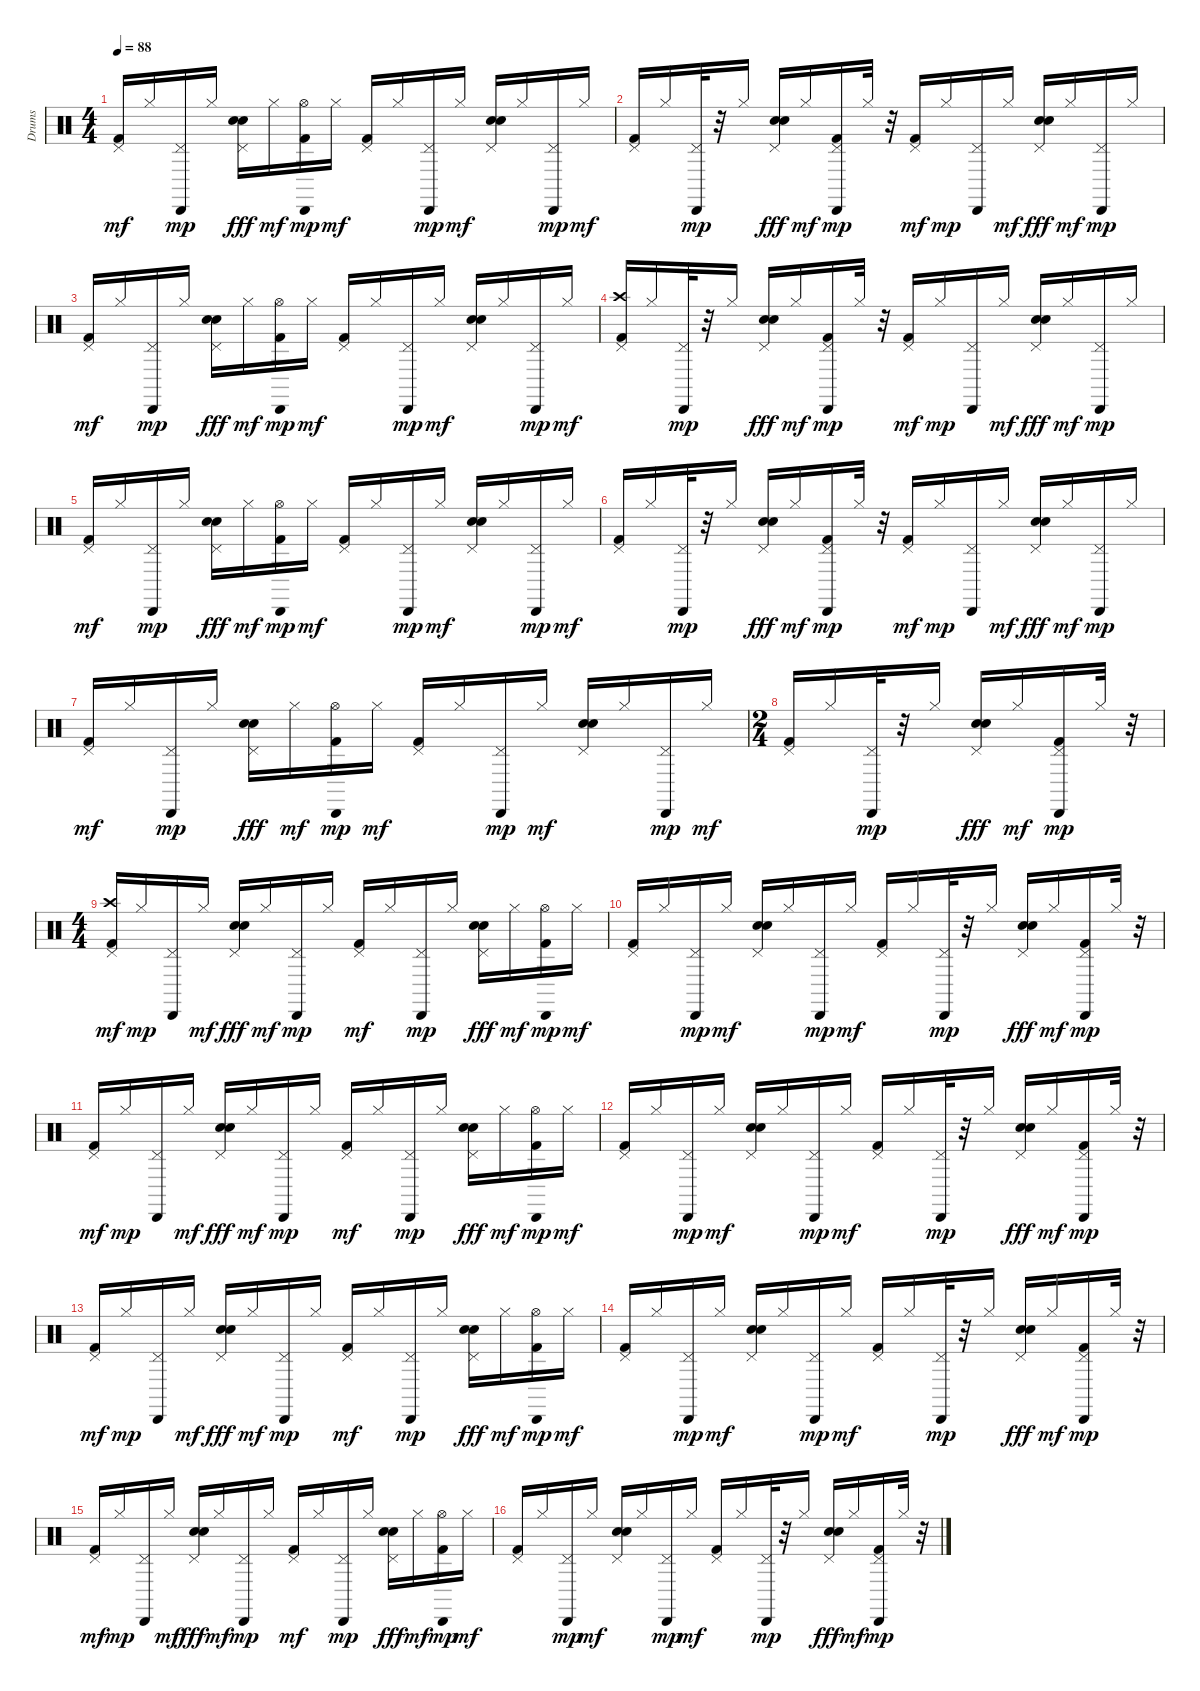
\track ("Drums" "Drums") {instrument percussion}
\staff {score}
\articulation defaults
\ts (4 4)
\tempo 88
\clef neutral
\ks c
("Pedal Hi-Hat (hit)" "Kick (hit) 2").16{dy mf} "Hi-Hat (closed)".16 ("Pedal Hi-Hat (hit)" "Cabasa (hit)").16{dy mp} "Hi-Hat (closed)".16 ("Pedal Hi-Hat (hit)" "Snare (hit) 2" "Electric Snare (hit)").16{dy fff} "Hi-Hat (closed)".16{dy mf} ("Hi-Hat (open)" "Cabasa (hit)" "Kick (hit) 2").16{dy mp} "Hi-Hat (closed)".16{dy mf} ("Kick (hit) 2" "Pedal Hi-Hat (hit)").16 "Hi-Hat (closed)".16 ("Pedal Hi-Hat (hit)" "Cabasa (hit)").16{dy mp} "Hi-Hat (closed)".16{dy mf} ("Snare (hit) 2" "Electric Snare (hit)" "Pedal Hi-Hat (hit)").16 "Hi-Hat (closed)".16 ("Pedal Hi-Hat (hit)" "Cabasa (hit)").16{dy mp} "Hi-Hat (closed)".16{dy mf} |
("Pedal Hi-Hat (hit)" "Kick (hit) 2").16 "Hi-Hat (closed)".16 ("Pedal Hi-Hat (hit)" "Cabasa (hit)").32{dy mp} r.32 "Hi-Hat (closed)".16 ("Pedal Hi-Hat (hit)" "Snare (hit) 2" "Electric Snare (hit)").16{dy fff} "Hi-Hat (closed)".16{dy mf} ("Pedal Hi-Hat (hit)" "Cabasa (hit)" "Kick (hit) 2").16{dy mp} "Hi-Hat (closed)".32 r.32 ("Pedal Hi-Hat (hit)" "Kick (hit) 2").16{dy mf} "Hi-Hat (closed)".16{dy mp} ("Pedal Hi-Hat (hit)" "Cabasa (hit)").16 "Hi-Hat (closed)".16{dy mf} ("Pedal Hi-Hat (hit)" "Snare (hit) 2" "Electric Snare (hit)").16{dy fff} "Hi-Hat (closed)".16{dy mf} ("Pedal Hi-Hat (hit)" "Cabasa (hit)").16{dy mp} "Hi-Hat (closed)".16 |
("Pedal Hi-Hat (hit)" "Kick (hit) 2").16{dy mf} "Hi-Hat (closed)".16 ("Pedal Hi-Hat (hit)" "Cabasa (hit)").16{dy mp} "Hi-Hat (closed)".16 ("Pedal Hi-Hat (hit)" "Snare (hit) 2" "Electric Snare (hit)").16{dy fff} "Hi-Hat (closed)".16{dy mf} ("Hi-Hat (open)" "Cabasa (hit)" "Kick (hit) 2").16{dy mp} "Hi-Hat (closed)".16{dy mf} ("Kick (hit) 2" "Pedal Hi-Hat (hit)").16 "Hi-Hat (closed)".16 ("Pedal Hi-Hat (hit)" "Cabasa (hit)").16{dy mp} "Hi-Hat (closed)".16{dy mf} ("Snare (hit) 2" "Electric Snare (hit)" "Pedal Hi-Hat (hit)").16 "Hi-Hat (closed)".16 ("Pedal Hi-Hat (hit)" "Cabasa (hit)").16{dy mp} "Hi-Hat (closed)".16{dy mf} |
("Crash high (hit)" "Pedal Hi-Hat (hit)" "Kick (hit) 2").16 "Hi-Hat (closed)".16 ("Pedal Hi-Hat (hit)" "Cabasa (hit)").32{dy mp} r.32 "Hi-Hat (closed)".16 ("Pedal Hi-Hat (hit)" "Snare (hit) 2" "Electric Snare (hit)").16{dy fff} "Hi-Hat (closed)".16{dy mf} ("Pedal Hi-Hat (hit)" "Cabasa (hit)" "Kick (hit) 2").16{dy mp} "Hi-Hat (closed)".32 r.32 ("Pedal Hi-Hat (hit)" "Kick (hit) 2").16{dy mf} "Hi-Hat (closed)".16{dy mp} ("Pedal Hi-Hat (hit)" "Cabasa (hit)").16 "Hi-Hat (closed)".16{dy mf} ("Pedal Hi-Hat (hit)" "Snare (hit) 2" "Electric Snare (hit)").16{dy fff} "Hi-Hat (closed)".16{dy mf} ("Pedal Hi-Hat (hit)" "Cabasa (hit)").16{dy mp} "Hi-Hat (closed)".16 |
("Pedal Hi-Hat (hit)" "Kick (hit) 2").16{dy mf} "Hi-Hat (closed)".16 ("Pedal Hi-Hat (hit)" "Cabasa (hit)").16{dy mp} "Hi-Hat (closed)".16 ("Pedal Hi-Hat (hit)" "Snare (hit) 2" "Electric Snare (hit)").16{dy fff} "Hi-Hat (closed)".16{dy mf} ("Hi-Hat (open)" "Cabasa (hit)" "Kick (hit) 2").16{dy mp} "Hi-Hat (closed)".16{dy mf} ("Kick (hit) 2" "Pedal Hi-Hat (hit)").16 "Hi-Hat (closed)".16 ("Pedal Hi-Hat (hit)" "Cabasa (hit)").16{dy mp} "Hi-Hat (closed)".16{dy mf} ("Snare (hit) 2" "Electric Snare (hit)" "Pedal Hi-Hat (hit)").16 "Hi-Hat (closed)".16 ("Pedal Hi-Hat (hit)" "Cabasa (hit)").16{dy mp} "Hi-Hat (closed)".16{dy mf} |
("Pedal Hi-Hat (hit)" "Kick (hit) 2").16 "Hi-Hat (closed)".16 ("Pedal Hi-Hat (hit)" "Cabasa (hit)").32{dy mp} r.32 "Hi-Hat (closed)".16 ("Pedal Hi-Hat (hit)" "Snare (hit) 2" "Electric Snare (hit)").16{dy fff} "Hi-Hat (closed)".16{dy mf} ("Pedal Hi-Hat (hit)" "Cabasa (hit)" "Kick (hit) 2").16{dy mp} "Hi-Hat (closed)".32 r.32 ("Pedal Hi-Hat (hit)" "Kick (hit) 2").16{dy mf} "Hi-Hat (closed)".16{dy mp} ("Pedal Hi-Hat (hit)" "Cabasa (hit)").16 "Hi-Hat (closed)".16{dy mf} ("Pedal Hi-Hat (hit)" "Snare (hit) 2" "Electric Snare (hit)").16{dy fff} "Hi-Hat (closed)".16{dy mf} ("Pedal Hi-Hat (hit)" "Cabasa (hit)").16{dy mp} "Hi-Hat (closed)".16 |
("Pedal Hi-Hat (hit)" "Kick (hit) 2").16{dy mf} "Hi-Hat (closed)".16 ("Pedal Hi-Hat (hit)" "Cabasa (hit)").16{dy mp} "Hi-Hat (closed)".16 ("Pedal Hi-Hat (hit)" "Snare (hit) 2" "Electric Snare (hit)").16{dy fff} "Hi-Hat (closed)".16{dy mf} ("Hi-Hat (open)" "Cabasa (hit)" "Kick (hit) 2").16{dy mp} "Hi-Hat (closed)".16{dy mf} ("Kick (hit) 2" "Pedal Hi-Hat (hit)").16 "Hi-Hat (closed)".16 ("Pedal Hi-Hat (hit)" "Cabasa (hit)").16{dy mp} "Hi-Hat (closed)".16{dy mf} ("Snare (hit) 2" "Electric Snare (hit)" "Pedal Hi-Hat (hit)").16 "Hi-Hat (closed)".16 ("Pedal Hi-Hat (hit)" "Cabasa (hit)").16{dy mp} "Hi-Hat (closed)".16{dy mf} |
\ts (2 4)
("Pedal Hi-Hat (hit)" "Kick (hit) 2").16 "Hi-Hat (closed)".16 ("Pedal Hi-Hat (hit)" "Cabasa (hit)").32{dy mp} r.32 "Hi-Hat (closed)".16 ("Pedal Hi-Hat (hit)" "Snare (hit) 2" "Electric Snare (hit)").16{dy fff} "Hi-Hat (closed)".16{dy mf} ("Pedal Hi-Hat (hit)" "Cabasa (hit)" "Kick (hit) 2").16{dy mp} "Hi-Hat (closed)".32 r.32 |
\ts (4 4)
("Crash high (hit)" "Pedal Hi-Hat (hit)" "Kick (hit) 2").16{dy mf} "Hi-Hat (closed)".16{dy mp} ("Pedal Hi-Hat (hit)" "Cabasa (hit)").16 "Hi-Hat (closed)".16{dy mf} ("Pedal Hi-Hat (hit)" "Snare (hit) 2" "Electric Snare (hit)").16{dy fff} "Hi-Hat (closed)".16{dy mf} ("Pedal Hi-Hat (hit)" "Cabasa (hit)").16{dy mp} "Hi-Hat (closed)".16 ("Pedal Hi-Hat (hit)" "Kick (hit) 2").16{dy mf} "Hi-Hat (closed)".16 ("Pedal Hi-Hat (hit)" "Cabasa (hit)").16{dy mp} "Hi-Hat (closed)".16 ("Pedal Hi-Hat (hit)" "Snare (hit) 2" "Electric Snare (hit)").16{dy fff} "Hi-Hat (closed)".16{dy mf} ("Hi-Hat (open)" "Cabasa (hit)" "Kick (hit) 2").16{dy mp} "Hi-Hat (closed)".16{dy mf} |
("Kick (hit) 2" "Pedal Hi-Hat (hit)").16 "Hi-Hat (closed)".16 ("Pedal Hi-Hat (hit)" "Cabasa (hit)").16{dy mp} "Hi-Hat (closed)".16{dy mf} ("Snare (hit) 2" "Electric Snare (hit)" "Pedal Hi-Hat (hit)").16 "Hi-Hat (closed)".16 ("Pedal Hi-Hat (hit)" "Cabasa (hit)").16{dy mp} "Hi-Hat (closed)".16{dy mf} ("Pedal Hi-Hat (hit)" "Kick (hit) 2").16 "Hi-Hat (closed)".16 ("Pedal Hi-Hat (hit)" "Cabasa (hit)").32{dy mp} r.32 "Hi-Hat (closed)".16 ("Pedal Hi-Hat (hit)" "Snare (hit) 2" "Electric Snare (hit)").16{dy fff} "Hi-Hat (closed)".16{dy mf} ("Pedal Hi-Hat (hit)" "Cabasa (hit)" "Kick (hit) 2").16{dy mp} "Hi-Hat (closed)".32 r.32 |
("Pedal Hi-Hat (hit)" "Kick (hit) 2").16{dy mf} "Hi-Hat (closed)".16{dy mp} ("Pedal Hi-Hat (hit)" "Cabasa (hit)").16 "Hi-Hat (closed)".16{dy mf} ("Pedal Hi-Hat (hit)" "Snare (hit) 2" "Electric Snare (hit)").16{dy fff} "Hi-Hat (closed)".16{dy mf} ("Pedal Hi-Hat (hit)" "Cabasa (hit)").16{dy mp} "Hi-Hat (closed)".16 ("Pedal Hi-Hat (hit)" "Kick (hit) 2").16{dy mf} "Hi-Hat (closed)".16 ("Pedal Hi-Hat (hit)" "Cabasa (hit)").16{dy mp} "Hi-Hat (closed)".16 ("Pedal Hi-Hat (hit)" "Snare (hit) 2" "Electric Snare (hit)").16{dy fff} "Hi-Hat (closed)".16{dy mf} ("Hi-Hat (open)" "Cabasa (hit)" "Kick (hit) 2").16{dy mp} "Hi-Hat (closed)".16{dy mf} |
("Kick (hit) 2" "Pedal Hi-Hat (hit)").16 "Hi-Hat (closed)".16 ("Pedal Hi-Hat (hit)" "Cabasa (hit)").16{dy mp} "Hi-Hat (closed)".16{dy mf} ("Snare (hit) 2" "Electric Snare (hit)" "Pedal Hi-Hat (hit)").16 "Hi-Hat (closed)".16 ("Pedal Hi-Hat (hit)" "Cabasa (hit)").16{dy mp} "Hi-Hat (closed)".16{dy mf} ("Pedal Hi-Hat (hit)" "Kick (hit) 2").16 "Hi-Hat (closed)".16 ("Pedal Hi-Hat (hit)" "Cabasa (hit)").32{dy mp} r.32 "Hi-Hat (closed)".16 ("Pedal Hi-Hat (hit)" "Snare (hit) 2" "Electric Snare (hit)").16{dy fff} "Hi-Hat (closed)".16{dy mf} ("Pedal Hi-Hat (hit)" "Cabasa (hit)" "Kick (hit) 2").16{dy mp} "Hi-Hat (closed)".32 r.32 |
("Pedal Hi-Hat (hit)" "Kick (hit) 2").16{dy mf} "Hi-Hat (closed)".16{dy mp} ("Pedal Hi-Hat (hit)" "Cabasa (hit)").16 "Hi-Hat (closed)".16{dy mf} ("Pedal Hi-Hat (hit)" "Snare (hit) 2" "Electric Snare (hit)").16{dy fff} "Hi-Hat (closed)".16{dy mf} ("Pedal Hi-Hat (hit)" "Cabasa (hit)").16{dy mp} "Hi-Hat (closed)".16 ("Pedal Hi-Hat (hit)" "Kick (hit) 2").16{dy mf} "Hi-Hat (closed)".16 ("Pedal Hi-Hat (hit)" "Cabasa (hit)").16{dy mp} "Hi-Hat (closed)".16 ("Pedal Hi-Hat (hit)" "Snare (hit) 2" "Electric Snare (hit)").16{dy fff} "Hi-Hat (closed)".16{dy mf} ("Hi-Hat (open)" "Cabasa (hit)" "Kick (hit) 2").16{dy mp} "Hi-Hat (closed)".16{dy mf} |
("Kick (hit) 2" "Pedal Hi-Hat (hit)").16 "Hi-Hat (closed)".16 ("Pedal Hi-Hat (hit)" "Cabasa (hit)").16{dy mp} "Hi-Hat (closed)".16{dy mf} ("Snare (hit) 2" "Electric Snare (hit)" "Pedal Hi-Hat (hit)").16 "Hi-Hat (closed)".16 ("Pedal Hi-Hat (hit)" "Cabasa (hit)").16{dy mp} "Hi-Hat (closed)".16{dy mf} ("Pedal Hi-Hat (hit)" "Kick (hit) 2").16 "Hi-Hat (closed)".16 ("Pedal Hi-Hat (hit)" "Cabasa (hit)").32{dy mp} r.32 "Hi-Hat (closed)".16 ("Pedal Hi-Hat (hit)" "Snare (hit) 2" "Electric Snare (hit)").16{dy fff} "Hi-Hat (closed)".16{dy mf} ("Pedal Hi-Hat (hit)" "Cabasa (hit)" "Kick (hit) 2").16{dy mp} "Hi-Hat (closed)".32 r.32 |
("Pedal Hi-Hat (hit)" "Kick (hit) 2").16{dy mf} "Hi-Hat (closed)".16{dy mp} ("Pedal Hi-Hat (hit)" "Cabasa (hit)").16 "Hi-Hat (closed)".16{dy mf} ("Pedal Hi-Hat (hit)" "Snare (hit) 2" "Electric Snare (hit)").16{dy fff} "Hi-Hat (closed)".16{dy mf} ("Pedal Hi-Hat (hit)" "Cabasa (hit)").16{dy mp} "Hi-Hat (closed)".16 ("Pedal Hi-Hat (hit)" "Kick (hit) 2").16{dy mf} "Hi-Hat (closed)".16 ("Pedal Hi-Hat (hit)" "Cabasa (hit)").16{dy mp} "Hi-Hat (closed)".16 ("Pedal Hi-Hat (hit)" "Snare (hit) 2" "Electric Snare (hit)").16{dy fff} "Hi-Hat (closed)".16{dy mf} ("Hi-Hat (open)" "Cabasa (hit)" "Kick (hit) 2").16{dy mp} "Hi-Hat (closed)".16{dy mf} |
("Kick (hit) 2" "Pedal Hi-Hat (hit)").16 "Hi-Hat (closed)".16 ("Pedal Hi-Hat (hit)" "Cabasa (hit)").16{dy mp} "Hi-Hat (closed)".16{dy mf} ("Snare (hit) 2" "Electric Snare (hit)" "Pedal Hi-Hat (hit)").16 "Hi-Hat (closed)".16 ("Pedal Hi-Hat (hit)" "Cabasa (hit)").16{dy mp} "Hi-Hat (closed)".16{dy mf} ("Pedal Hi-Hat (hit)" "Kick (hit) 2").16 "Hi-Hat (closed)".16 ("Pedal Hi-Hat (hit)" "Cabasa (hit)").32{dy mp} r.32 "Hi-Hat (closed)".16 ("Pedal Hi-Hat (hit)" "Snare (hit) 2" "Electric Snare (hit)").16{dy fff} "Hi-Hat (closed)".16{dy mf} ("Pedal Hi-Hat (hit)" "Cabasa (hit)" "Kick (hit) 2").16{dy mp} "Hi-Hat (closed)".32 r.32
